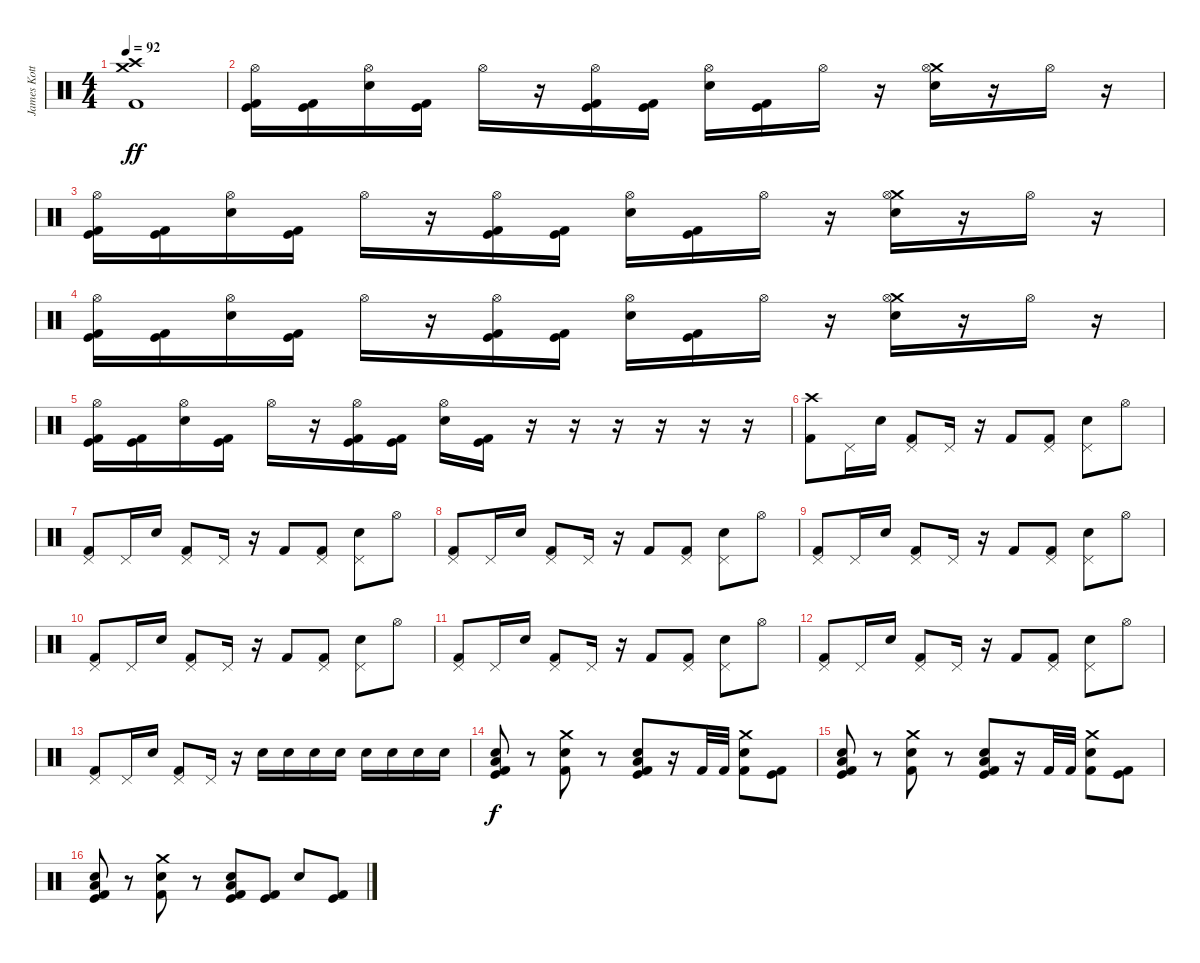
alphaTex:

\track ("James Kottak" "James Kott") {instrument percussion}
\staff {score}
\articulation defaults
\ts (4 4)
\tempo 92
\clef neutral
\ks c
("Crash high (hit)" "Crash medium (hit)" "Kick (hit) 2").1{dy ff} |
("Hi-Hat (open)" "Kick (hit) 2" "Kick (hit)").16 ("Kick (hit) 2" "Kick (hit)").16 ("Hi-Hat (open)" "Electric Snare (hit)").16 ("Kick (hit) 2" "Kick (hit)").16 "Hi-Hat (open)".16 r.16 ("Hi-Hat (open)" "Kick (hit) 2" "Kick (hit)").16 ("Kick (hit) 2" "Kick (hit)").16 ("Hi-Hat (open)" "Electric Snare (hit)").16 ("Kick (hit) 2" "Kick (hit)").16 "Hi-Hat (open)".16 r.16 ("Crash medium (hit)" "Hi-Hat (open)" "Electric Snare (hit)").16 r.16 "Hi-Hat (open)".16 r.16 |
("Hi-Hat (open)" "Kick (hit) 2" "Kick (hit)").16 ("Kick (hit) 2" "Kick (hit)").16 ("Hi-Hat (open)" "Electric Snare (hit)").16 ("Kick (hit) 2" "Kick (hit)").16 "Hi-Hat (open)".16 r.16 ("Hi-Hat (open)" "Kick (hit) 2" "Kick (hit)").16 ("Kick (hit) 2" "Kick (hit)").16 ("Hi-Hat (open)" "Electric Snare (hit)").16 ("Kick (hit) 2" "Kick (hit)").16 "Hi-Hat (open)".16 r.16 ("Crash medium (hit)" "Hi-Hat (open)" "Electric Snare (hit)").16 r.16 "Hi-Hat (open)".16 r.16 |
("Hi-Hat (open)" "Kick (hit) 2" "Kick (hit)").16 ("Kick (hit) 2" "Kick (hit)").16 ("Hi-Hat (open)" "Electric Snare (hit)").16 ("Kick (hit) 2" "Kick (hit)").16 "Hi-Hat (open)".16 r.16 ("Hi-Hat (open)" "Kick (hit) 2" "Kick (hit)").16 ("Kick (hit) 2" "Kick (hit)").16 ("Hi-Hat (open)" "Electric Snare (hit)").16 ("Kick (hit) 2" "Kick (hit)").16 "Hi-Hat (open)".16 r.16 ("Crash medium (hit)" "Hi-Hat (open)" "Electric Snare (hit)").16 r.16 "Hi-Hat (open)".16 r.16 |
("Hi-Hat (open)" "Kick (hit) 2" "Kick (hit)").16 ("Kick (hit) 2" "Kick (hit)").16 ("Hi-Hat (open)" "Electric Snare (hit)").16 ("Kick (hit) 2" "Kick (hit)").16 "Hi-Hat (open)".16 r.16 ("Hi-Hat (open)" "Kick (hit) 2" "Kick (hit)").16 ("Kick (hit) 2" "Kick (hit)").16 ("Hi-Hat (open)" "Electric Snare (hit)").16 ("Kick (hit) 2" "Kick (hit)").16 r.16 r.16 r.16 r.16 r.16 r.16 |
("Crash high (hit)" "Kick (hit) 2").8 "Pedal Hi-Hat (hit)".16 "Electric Snare (hit)".16 ("Pedal Hi-Hat (hit)" "Kick (hit) 2").8 "Pedal Hi-Hat (hit)".16 r.16 "Kick (hit) 2".8 ("Pedal Hi-Hat (hit)" "Kick (hit) 2").8 ("Pedal Hi-Hat (hit)" "Electric Snare (hit)").8 "Hi-Hat (open)".8 |
("Pedal Hi-Hat (hit)" "Kick (hit) 2").8 "Pedal Hi-Hat (hit)".16 "Electric Snare (hit)".16 ("Pedal Hi-Hat (hit)" "Kick (hit) 2").8 "Pedal Hi-Hat (hit)".16 r.16 "Kick (hit) 2".8 ("Pedal Hi-Hat (hit)" "Kick (hit) 2").8 ("Pedal Hi-Hat (hit)" "Electric Snare (hit)").8 "Hi-Hat (open)".8 |
("Pedal Hi-Hat (hit)" "Kick (hit) 2").8 "Pedal Hi-Hat (hit)".16 "Electric Snare (hit)".16 ("Pedal Hi-Hat (hit)" "Kick (hit) 2").8 "Pedal Hi-Hat (hit)".16 r.16 "Kick (hit) 2".8 ("Pedal Hi-Hat (hit)" "Kick (hit) 2").8 ("Pedal Hi-Hat (hit)" "Electric Snare (hit)").8 "Hi-Hat (open)".8 |
("Pedal Hi-Hat (hit)" "Kick (hit) 2").8 "Pedal Hi-Hat (hit)".16 "Electric Snare (hit)".16 ("Pedal Hi-Hat (hit)" "Kick (hit) 2").8 "Pedal Hi-Hat (hit)".16 r.16 "Kick (hit) 2".8 ("Pedal Hi-Hat (hit)" "Kick (hit) 2").8 ("Pedal Hi-Hat (hit)" "Electric Snare (hit)").8 "Hi-Hat (open)".8 |
("Pedal Hi-Hat (hit)" "Kick (hit) 2").8 "Pedal Hi-Hat (hit)".16 "Electric Snare (hit)".16 ("Pedal Hi-Hat (hit)" "Kick (hit) 2").8 "Pedal Hi-Hat (hit)".16 r.16 "Kick (hit) 2".8 ("Pedal Hi-Hat (hit)" "Kick (hit) 2").8 ("Pedal Hi-Hat (hit)" "Electric Snare (hit)").8 "Hi-Hat (open)".8 |
("Pedal Hi-Hat (hit)" "Kick (hit) 2").8 "Pedal Hi-Hat (hit)".16 "Electric Snare (hit)".16 ("Pedal Hi-Hat (hit)" "Kick (hit) 2").8 "Pedal Hi-Hat (hit)".16 r.16 "Kick (hit) 2".8 ("Pedal Hi-Hat (hit)" "Kick (hit) 2").8 ("Pedal Hi-Hat (hit)" "Electric Snare (hit)").8 "Hi-Hat (open)".8 |
("Pedal Hi-Hat (hit)" "Kick (hit) 2").8 "Pedal Hi-Hat (hit)".16 "Electric Snare (hit)".16 ("Pedal Hi-Hat (hit)" "Kick (hit) 2").8 "Pedal Hi-Hat (hit)".16 r.16 "Kick (hit) 2".8 ("Pedal Hi-Hat (hit)" "Kick (hit) 2").8 ("Pedal Hi-Hat (hit)" "Electric Snare (hit)").8 "Hi-Hat (open)".8 |
("Pedal Hi-Hat (hit)" "Kick (hit) 2").8 "Pedal Hi-Hat (hit)".16 "Electric Snare (hit)".16 ("Pedal Hi-Hat (hit)" "Kick (hit) 2").8 "Pedal Hi-Hat (hit)".16 r.16 "Electric Snare (hit)".16 "Electric Snare (hit)".16 "Electric Snare (hit)".16 "Electric Snare (hit)".16 "Electric Snare (hit)".16 "Electric Snare (hit)".16 "Electric Snare (hit)".16 "Electric Snare (hit)".16 |
("Electric Snare (hit)" "Kick (hit)" "Low Floor Tom (hit)" "Kick (hit) 2").8{dy f} r.8 ("Crash medium (hit)" "Electric Snare (hit)" "Kick (hit) 2").8 r.8 ("Electric Snare (hit)" "Kick (hit)" "Low Floor Tom (hit)" "Kick (hit) 2").8 r.16 "Kick (hit) 2".32 "Kick (hit) 2".32 ("Crash medium (hit)" "Electric Snare (hit)" "Kick (hit) 2").8 ("Kick (hit)" "Kick (hit) 2").8 |
("Electric Snare (hit)" "Kick (hit)" "Low Floor Tom (hit)" "Kick (hit) 2").8 r.8 ("Crash medium (hit)" "Electric Snare (hit)" "Kick (hit) 2").8 r.8 ("Electric Snare (hit)" "Kick (hit)" "Low Floor Tom (hit)" "Kick (hit) 2").8 r.16 "Kick (hit) 2".32 "Kick (hit) 2".32 ("Crash medium (hit)" "Electric Snare (hit)" "Kick (hit) 2").8 ("Kick (hit)" "Kick (hit) 2").8 |
("Electric Snare (hit)" "Kick (hit)" "Low Floor Tom (hit)" "Kick (hit) 2").8 r.8 ("Crash medium (hit)" "Electric Snare (hit)" "Kick (hit) 2").8 r.8 ("Electric Snare (hit)" "Kick (hit)" "Low Floor Tom (hit)" "Kick (hit) 2").8 ("Kick (hit) 2" "Kick (hit)").8 "Electric Snare (hit)".8 ("Kick (hit) 2" "Kick (hit)").8
